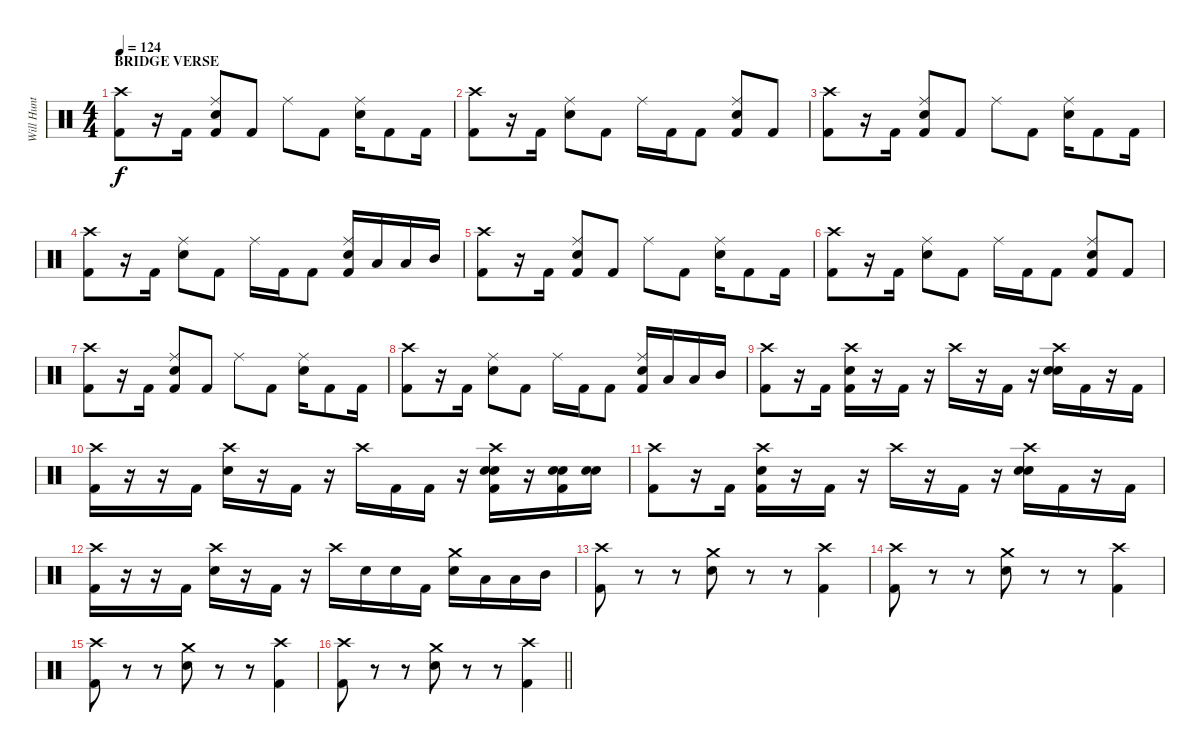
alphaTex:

\track ("Will Hunt - drums" "Will Hunt ") {instrument percussion}
\staff {score}
\articulation defaults
\ts (4 4)
\section ("" "BRIDGE VERSE")
\tempo 124
\clef neutral
\ks c
("Crash high (hit)" "Kick (hit) 2").8{dy f} r.16 "Kick (hit) 2".16 ("Ride (middle)" "Snare (hit) 2" "Kick (hit) 2").8 "Kick (hit) 2".8 "Ride (middle)".8 "Kick (hit) 2".8 ("Ride (middle)" "Snare (hit) 2").16 "Kick (hit) 2".8 "Kick (hit) 2".16 |
("Crash high (hit)" "Kick (hit) 2").8 r.16 "Kick (hit) 2".16 ("Ride (middle)" "Snare (hit) 2").8 "Kick (hit) 2".8 "Ride (middle)".16 "Kick (hit) 2".16 "Kick (hit) 2".8 ("Ride (middle)" "Snare (hit) 2" "Kick (hit) 2").8 "Kick (hit) 2".8 |
("Crash high (hit)" "Kick (hit) 2").8 r.16 "Kick (hit) 2".16 ("Ride (middle)" "Snare (hit) 2" "Kick (hit) 2").8 "Kick (hit) 2".8 "Ride (middle)".8 "Kick (hit) 2".8 ("Ride (middle)" "Snare (hit) 2").16 "Kick (hit) 2".8 "Kick (hit) 2".16 |
("Crash high (hit)" "Kick (hit) 2").8 r.16 "Kick (hit) 2".16 ("Ride (middle)" "Snare (hit) 2").8 "Kick (hit) 2".8 "Ride (middle)".16 "Kick (hit) 2".16 "Kick (hit) 2".8 ("Ride (middle)" "Snare (hit) 2" "Kick (hit) 2").16 "Low Tom (hit)".16 "Low Tom (hit)".16 "Mid Tom (hit)".16 |
("Crash high (hit)" "Kick (hit) 2").8 r.16 "Kick (hit) 2".16 ("Ride (middle)" "Snare (hit) 2" "Kick (hit) 2").8 "Kick (hit) 2".8 "Ride (middle)".8 "Kick (hit) 2".8 ("Ride (middle)" "Snare (hit) 2").16 "Kick (hit) 2".8 "Kick (hit) 2".16 |
("Crash high (hit)" "Kick (hit) 2").8 r.16 "Kick (hit) 2".16 ("Ride (middle)" "Snare (hit) 2").8 "Kick (hit) 2".8 "Ride (middle)".16 "Kick (hit) 2".16 "Kick (hit) 2".8 ("Ride (middle)" "Snare (hit) 2" "Kick (hit) 2").8 "Kick (hit) 2".8 |
("Crash high (hit)" "Kick (hit) 2").8 r.16 "Kick (hit) 2".16 ("Ride (middle)" "Snare (hit) 2" "Kick (hit) 2").8 "Kick (hit) 2".8 "Ride (middle)".8 "Kick (hit) 2".8 ("Ride (middle)" "Snare (hit) 2").16 "Kick (hit) 2".8 "Kick (hit) 2".16 |
("Crash high (hit)" "Kick (hit) 2").8 r.16 "Kick (hit) 2".16 ("Ride (middle)" "Snare (hit) 2").8 "Kick (hit) 2".8 "Ride (middle)".16 "Kick (hit) 2".16 "Kick (hit) 2".8 ("Ride (middle)" "Snare (hit) 2" "Kick (hit) 2").16 "Low Tom (hit)".16 "Low Tom (hit)".16 "Mid Tom (hit)".16 |
("Crash high (hit)" "Kick (hit) 2").8 r.16 "Kick (hit) 2".16 ("Crash high (hit)" "Snare (hit) 2" "Kick (hit) 2").16 r.16 "Kick (hit) 2".16 r.16 "Crash high (hit)".16 r.16 "Kick (hit) 2".16 r.16 ("Crash high (hit)" "Electric Snare (hit)" "Snare (hit) 2").16 "Kick (hit) 2".16 r.16 "Kick (hit) 2".16 |
("Crash high (hit)" "Kick (hit) 2").16 r.16 r.16 "Kick (hit) 2".16 ("Crash high (hit)" "Snare (hit) 2").16 r.16 "Kick (hit) 2".16 r.16 "Crash high (hit)".16 "Kick (hit) 2".16 "Kick (hit) 2".16 r.16 ("Crash high (hit)" "Electric Snare (hit)" "Snare (hit) 2" "Kick (hit) 2").16 r.16 ("Electric Snare (hit)" "Snare (hit) 2" "Kick (hit) 2").16 ("Electric Snare (hit)" "Snare (hit) 2").16 |
("Crash high (hit)" "Kick (hit) 2").8 r.16 "Kick (hit) 2".16 ("Crash high (hit)" "Snare (hit) 2" "Kick (hit) 2").16 r.16 "Kick (hit) 2".16 r.16 "Crash high (hit)".16 r.16 "Kick (hit) 2".16 r.16 ("Crash high (hit)" "Electric Snare (hit)" "Snare (hit) 2").16 "Kick (hit) 2".16 r.16 "Kick (hit) 2".16 |
("Crash high (hit)" "Kick (hit) 2").16 r.16 r.16 "Kick (hit) 2".16 ("Crash high (hit)" "Snare (hit) 2").16 r.16 "Kick (hit) 2".16 r.16 "Crash high (hit)".16 "Snare (hit) 2".16 "Snare (hit) 2".16 "Kick (hit) 2".16 ("Crash medium (hit)" "Snare (hit) 2").16 "Low Tom (hit)".16 "Low Tom (hit)".16 "Mid Tom (hit)".16 |
("Crash high (hit)" "Kick (hit) 2").8 r.8 r.8 ("Crash medium (hit)" "Snare (hit) 2").8 r.8 r.8 ("Crash high (hit)" "Kick (hit) 2").4 |
("Crash high (hit)" "Kick (hit) 2").8 r.8 r.8 ("Crash medium (hit)" "Snare (hit) 2").8 r.8 r.8 ("Crash high (hit)" "Kick (hit) 2").4 |
("Crash high (hit)" "Kick (hit) 2").8 r.8 r.8 ("Crash medium (hit)" "Snare (hit) 2").8 r.8 r.8 ("Crash high (hit)" "Kick (hit) 2").4 |
\barLineRight lightlight
("Crash high (hit)" "Kick (hit) 2").8 r.8 r.8 ("Crash medium (hit)" "Snare (hit) 2").8 r.8 r.8 ("Crash high (hit)" "Kick (hit) 2").4
